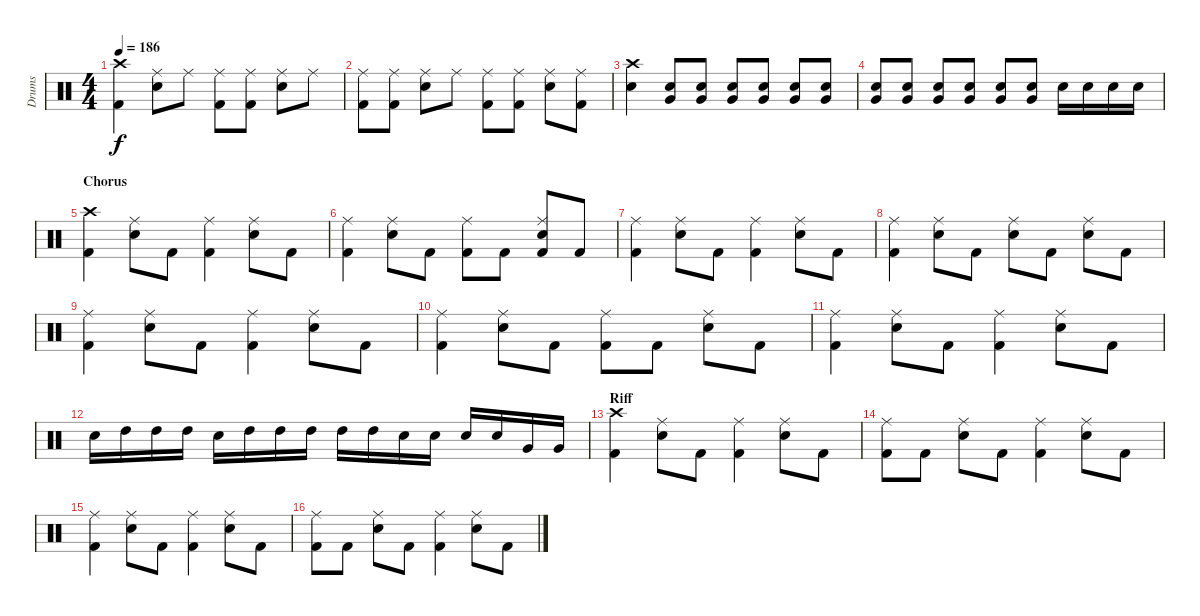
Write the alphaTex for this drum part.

\track ("Drums" "Drums") {instrument percussion}
\staff {score}
\articulation defaults
\ts (4 4)
\tempo 186
\clef neutral
\ks c
("Crash high (hit)" "Kick (hit) 2").4{dy f} ("Ride (middle)" "Snare (hit) 2").8 "Ride (middle)".8 ("Ride (middle)" "Kick (hit) 2").8 ("Ride (middle)" "Kick (hit) 2").8 ("Ride (middle)" "Snare (hit) 2").8 "Ride (middle)".8 |
("Ride (middle)" "Kick (hit) 2").8 ("Ride (middle)" "Kick (hit) 2").8 ("Ride (middle)" "Snare (hit) 2").8 "Ride (middle)".8 ("Ride (middle)" "Kick (hit) 2").8 ("Ride (middle)" "Kick (hit) 2").8 ("Ride (middle)" "Snare (hit) 2").8 ("Ride (middle)" "Kick (hit) 2").8 |
("Crash high (hit)" "Snare (hit) 2").4 ("Snare (hit) 2" "Very Low Tom (hit)").8{volume 16} ("Snare (hit) 2" "Very Low Tom (hit)").8 ("Snare (hit) 2" "Very Low Tom (hit)").8 ("Snare (hit) 2" "Very Low Tom (hit)").8 ("Snare (hit) 2" "Very Low Tom (hit)").8 ("Snare (hit) 2" "Very Low Tom (hit)").8 |
("Snare (hit) 2" "Very Low Tom (hit)").8 ("Snare (hit) 2" "Very Low Tom (hit)").8 ("Snare (hit) 2" "Very Low Tom (hit)").8 ("Snare (hit) 2" "Very Low Tom (hit)").8 ("Snare (hit) 2" "Very Low Tom (hit)").8 ("Snare (hit) 2" "Very Low Tom (hit)").8 "Snare (hit) 2".16 "Snare (hit) 2".16 "Snare (hit) 2".16 "Snare (hit) 2".16 |
\section ("" "Chorus")
("Crash high (hit)" "Kick (hit) 2").4{volume 13} ("Ride (middle)" "Snare (hit) 2").8 "Kick (hit) 2".8 ("Ride (middle)" "Kick (hit) 2").4 ("Ride (middle)" "Snare (hit) 2").8 "Kick (hit) 2".8 |
("Ride (middle)" "Kick (hit) 2").4 ("Ride (middle)" "Snare (hit) 2").8 "Kick (hit) 2".8 ("Ride (middle)" "Kick (hit) 2").8 "Kick (hit) 2".8 ("Ride (middle)" "Snare (hit) 2" "Kick (hit) 2").8 "Kick (hit) 2".8 |
("Ride (middle)" "Kick (hit) 2").4 ("Ride (middle)" "Snare (hit) 2").8 "Kick (hit) 2".8 ("Ride (middle)" "Kick (hit) 2").4 ("Ride (middle)" "Snare (hit) 2").8 "Kick (hit) 2".8 |
("Ride (middle)" "Kick (hit) 2").4 ("Ride (middle)" "Snare (hit) 2").8 "Kick (hit) 2".8 ("Ride (middle)" "Snare (hit) 2").8 "Kick (hit) 2".8 ("Ride (middle)" "Snare (hit) 2").8 "Kick (hit) 2".8 |
("Ride (middle)" "Kick (hit) 2").4 ("Ride (middle)" "Snare (hit) 2").8 "Kick (hit) 2".8 ("Ride (middle)" "Kick (hit) 2").4 ("Ride (middle)" "Snare (hit) 2").8 "Kick (hit) 2".8 |
("Ride (middle)" "Kick (hit) 2").4 ("Ride (middle)" "Snare (hit) 2").8 "Kick (hit) 2".8 ("Ride (middle)" "Kick (hit) 2").8 "Kick (hit) 2".8 ("Ride (middle)" "Snare (hit) 2").8 "Kick (hit) 2".8 |
("Ride (middle)" "Kick (hit) 2").4 ("Ride (middle)" "Snare (hit) 2").8 "Kick (hit) 2".8 ("Ride (middle)" "Kick (hit) 2").4 ("Ride (middle)" "Snare (hit) 2").8 "Kick (hit) 2".8 |
"Snare (hit) 2".16 "High Tom (hit)".16 "High Tom (hit)".16 "High Tom (hit)".16 "Snare (hit) 2".16 "High Tom (hit)".16 "High Tom (hit)".16 "High Tom (hit)".16 "High Tom (hit)".16 "High Tom (hit)".16 "Snare (hit) 2".16 "Snare (hit) 2".16 "Snare (hit) 2".16 "Snare (hit) 2".16 "Very Low Tom (hit)".16 "Very Low Tom (hit)".16 |
\section ("" "Riff")
("Crash high (hit)" "Kick (hit) 2").4 ("Ride (middle)" "Snare (hit) 2").8 "Kick (hit) 2".8 ("Ride (middle)" "Kick (hit) 2").4 ("Ride (middle)" "Snare (hit) 2").8 "Kick (hit) 2".8 |
("Ride (middle)" "Kick (hit) 2").8 "Kick (hit) 2".8 ("Ride (middle)" "Snare (hit) 2").8 "Kick (hit) 2".8 ("Ride (middle)" "Kick (hit) 2").4 ("Ride (middle)" "Snare (hit) 2").8 "Kick (hit) 2".8 |
("Ride (middle)" "Kick (hit) 2").4 ("Ride (middle)" "Snare (hit) 2").8 "Kick (hit) 2".8 ("Ride (middle)" "Kick (hit) 2").4 ("Ride (middle)" "Snare (hit) 2").8 "Kick (hit) 2".8 |
("Ride (middle)" "Kick (hit) 2").8 "Kick (hit) 2".8 ("Ride (middle)" "Snare (hit) 2").8 "Kick (hit) 2".8 ("Ride (middle)" "Kick (hit) 2").4 ("Ride (middle)" "Snare (hit) 2").8 "Kick (hit) 2".8
